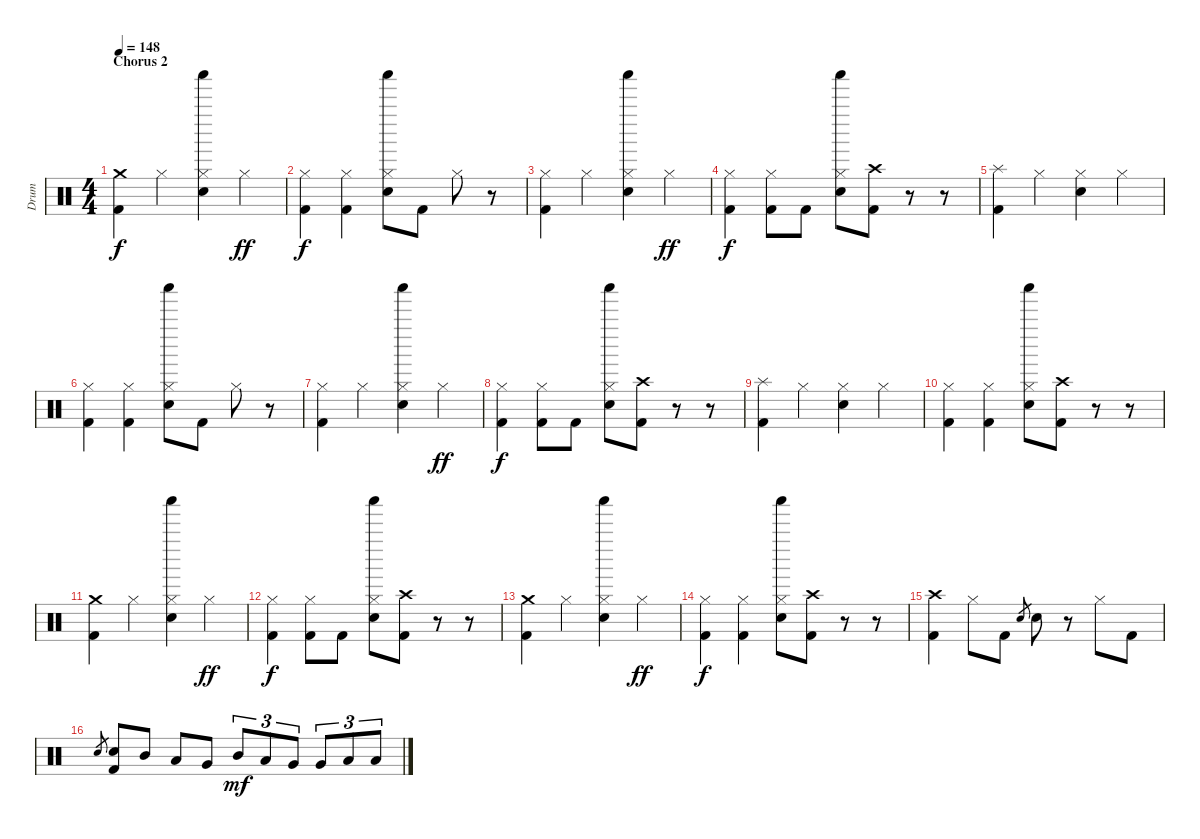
\track ("Drum" "Drum") {instrument percussion}
\staff {score}
\articulation defaults
\ts (4 4)
\section ("" "Chorus 2")
\tempo 148
\clef neutral
\ks c
("Crash medium (hit)" "Kick (hit) 2").4{dy f} "Hi-Hat (closed)".4 ("Shaker (hit)" "Electric Snare (hit)" "Hi-Hat (closed)").4 "Hi-Hat (closed)".4{dy ff} |
("Kick (hit) 2" "Hi-Hat (closed)").4{dy f} ("Kick (hit) 2" "Hi-Hat (closed)").4 ("Shaker (hit)" "Electric Snare (hit)" "Hi-Hat (closed)").8 "Kick (hit) 2".8 "Hi-Hat (closed)".8 r.8 |
("Kick (hit) 2" "Hi-Hat (closed)").4 "Hi-Hat (closed)".4 ("Shaker (hit)" "Electric Snare (hit)" "Hi-Hat (closed)").4 "Hi-Hat (closed)".4{dy ff} |
("Kick (hit) 2" "Hi-Hat (closed)").4{dy f} ("Kick (hit) 2" "Hi-Hat (closed)").8 "Kick (hit) 2".8 ("Shaker (hit)" "Electric Snare (hit)" "Hi-Hat (closed)").8 ("Kick (hit) 2" "Crash high (hit)").8 r.8 r.8 |
("Splash (hit)" "Kick (hit) 2").4 "Hi-Hat (closed)".4 ("Electric Snare (hit)" "Hi-Hat (closed)").4 "Hi-Hat (closed)".4 |
("Kick (hit) 2" "Hi-Hat (closed)").4 ("Kick (hit) 2" "Hi-Hat (closed)").4 ("Shaker (hit)" "Electric Snare (hit)" "Hi-Hat (closed)").8 "Kick (hit) 2".8 "Hi-Hat (closed)".8 r.8 |
("Kick (hit) 2" "Hi-Hat (closed)").4 "Hi-Hat (closed)".4 ("Shaker (hit)" "Electric Snare (hit)" "Hi-Hat (closed)").4 "Hi-Hat (closed)".4{dy ff} |
("Kick (hit) 2" "Hi-Hat (closed)").4{dy f} ("Kick (hit) 2" "Hi-Hat (closed)").8 "Kick (hit) 2".8 ("Shaker (hit)" "Electric Snare (hit)" "Hi-Hat (closed)").8 ("Kick (hit) 2" "Crash high (hit)").8 r.8 r.8 |
("Splash (hit)" "Kick (hit) 2").4 "Hi-Hat (closed)".4 ("Electric Snare (hit)" "Hi-Hat (closed)").4 "Hi-Hat (closed)".4 |
("Kick (hit) 2" "Hi-Hat (closed)").4 ("Kick (hit) 2" "Hi-Hat (closed)").4 ("Shaker (hit)" "Electric Snare (hit)" "Hi-Hat (closed)").8 ("Kick (hit) 2" "Crash high (hit)").8 r.8 r.8 |
("Kick (hit) 2" "Crash medium (hit)").4 "Hi-Hat (closed)".4 ("Shaker (hit)" "Electric Snare (hit)" "Hi-Hat (closed)").4 "Hi-Hat (closed)".4{dy ff} |
("Kick (hit) 2" "Hi-Hat (closed)").4{dy f} ("Kick (hit) 2" "Hi-Hat (closed)").8 "Kick (hit) 2".8 ("Shaker (hit)" "Electric Snare (hit)" "Hi-Hat (closed)").8 ("Kick (hit) 2" "Crash high (hit)").8 r.8 r.8 |
("Crash medium (hit)" "Kick (hit) 2").4 "Hi-Hat (closed)".4 ("Shaker (hit)" "Electric Snare (hit)" "Hi-Hat (closed)").4 "Hi-Hat (closed)".4{dy ff} |
("Kick (hit) 2" "Hi-Hat (closed)").4{dy f} ("Kick (hit) 2" "Hi-Hat (closed)").4 ("Shaker (hit)" "Electric Snare (hit)" "Hi-Hat (closed)").8 ("Kick (hit) 2" "Crash high (hit)").8 r.8 r.8 |
("Kick (hit) 2" "Crash high (hit)").4 "Hi-Hat (closed)".8 "Kick (hit) 2".8 "Electric Snare (hit)".8{gr} "Electric Snare (hit)".8 r.8 "Hi-Hat (closed)".8 "Kick (hit) 2".8 |
"Electric Snare (hit)".8{gr} ("Kick (hit) 2" "Electric Snare (hit)").8 "Mid Tom (hit)".8 "Low Tom (hit)".8 "Very Low Tom (hit)".8 "Mid Tom (hit)".8{tu (3 2) dy mf} "Low Tom (hit)".8{tu (3 2)} "Very Low Tom (hit)".8{tu (3 2)} "Very Low Tom (hit)".8{tu (3 2)} "Low Floor Tom (hit)".8{tu (3 2)} "Low Floor Tom (hit)".8{tu (3 2)}
